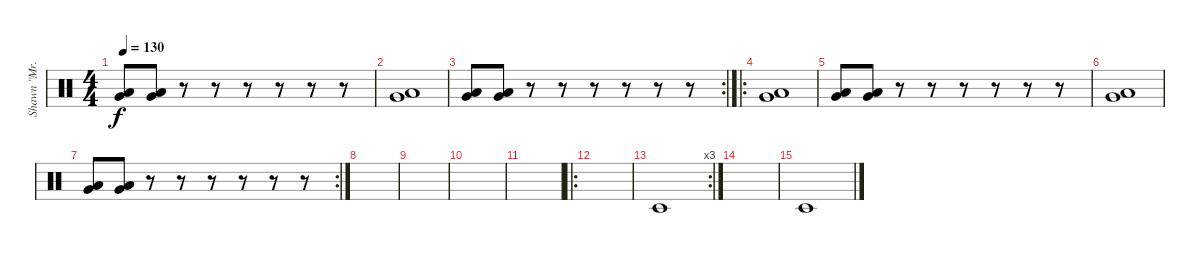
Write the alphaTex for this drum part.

\track ("Shawn \"Mr.Clown\" Crahan" "Shawn \"Mr.") {instrument percussion}
\staff {score}
\articulation defaults
\ts (4 4)
\tempo 130
\clef neutral
\ks c
("Very Low Tom (hit)" "Low Floor Tom (hit)").8{dy f} ("Very Low Tom (hit)" "Low Floor Tom (hit)").8 r.8 r.8 r.8 r.8 r.8 r.8 |
("Very Low Tom (hit)" "Low Floor Tom (hit)").1 |
\rc 2
("Very Low Tom (hit)" "Low Floor Tom (hit)").8 ("Very Low Tom (hit)" "Low Floor Tom (hit)").8 r.8 r.8 r.8 r.8 r.8 r.8 |
\ro
("Very Low Tom (hit)" "Low Floor Tom (hit)").1 |
("Very Low Tom (hit)" "Low Floor Tom (hit)").8 ("Very Low Tom (hit)" "Low Floor Tom (hit)").8 r.8 r.8 r.8 r.8 r.8 r.8 |
("Very Low Tom (hit)" "Low Floor Tom (hit)").1 |
\rc 2
("Very Low Tom (hit)" "Low Floor Tom (hit)").8 ("Very Low Tom (hit)" "Low Floor Tom (hit)").8 r.8 r.8 r.8 r.8 r.8 r.8 |
|
|
|
|
\ro
|
\rc 3 "Timbale low (hit)".1
|
|
"Timbale low (hit)".1
